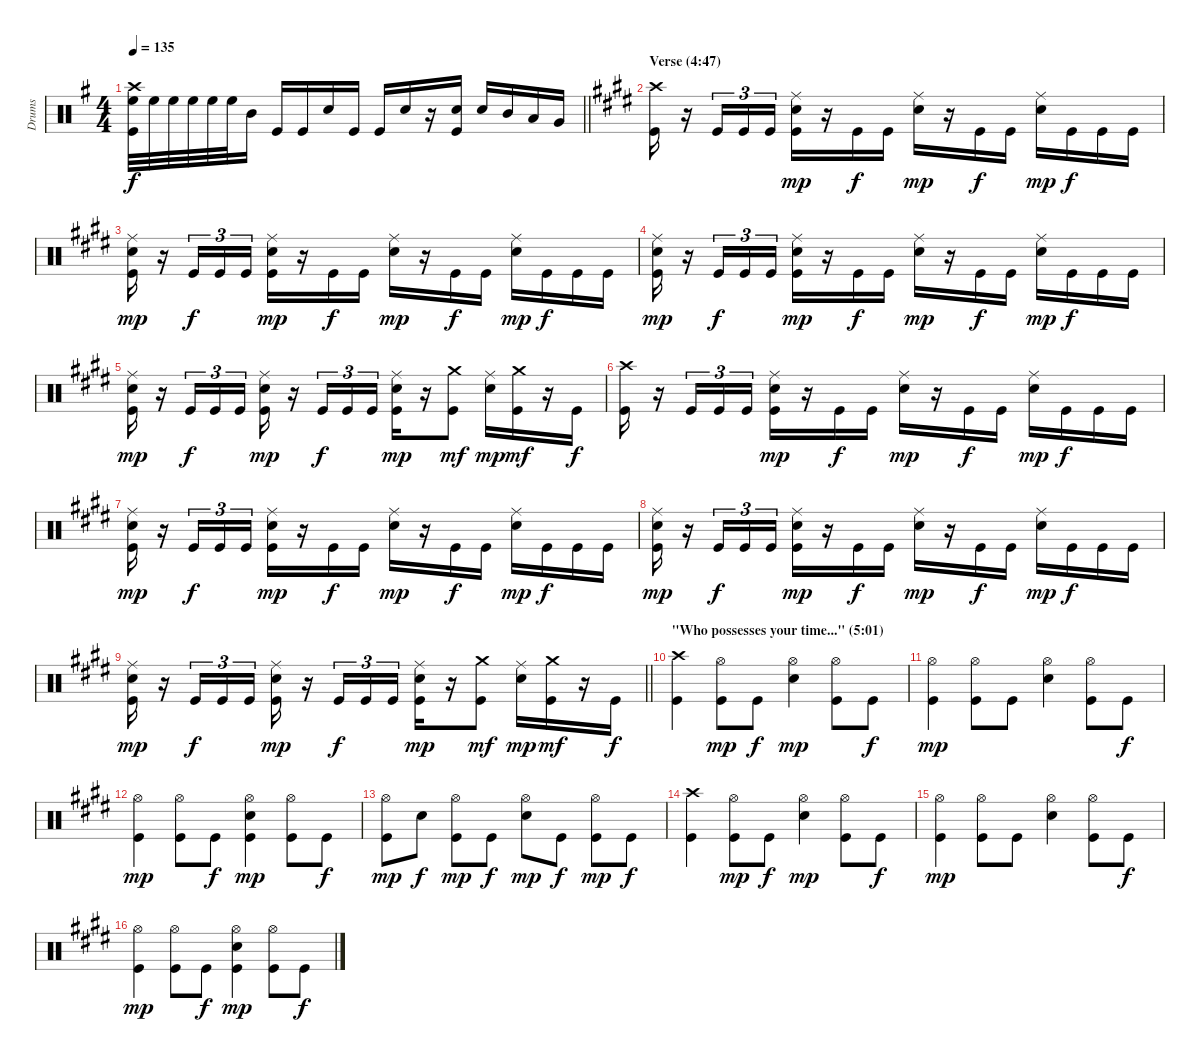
\track ("Drums" "Drums") {instrument percussion}
\staff {score}
\articulation defaults
\ts (4 4)
\tempo 135
\clef neutral
\barLineRight lightlight
\ks eminor
("Crash high (hit)" "High Floor Tom (hit)" "Kick (hit)").32{dy f} "High Floor Tom (hit)".32 "High Floor Tom (hit)".32 "High Floor Tom (hit)".32 "High Floor Tom (hit)".32 "High Floor Tom (hit)".32 "Mid Tom (hit)".16 "Kick (hit)".16 "Kick (hit)".16 "Snare (hit) 2".16 "Kick (hit)".16 "Kick (hit)".16 "Snare (hit) 2".16 r.16 ("Snare (hit) 2" "Kick (hit)").16 "Snare (hit) 2".16 "Mid Tom (hit)".16 "Low Tom (hit)".16 "Very Low Tom (hit)".16 |
\section ("" "Verse (4:47)")
\ks c#minor
("Crash high (hit)" "Kick (hit)").16 r.16 "Kick (hit)".16{tu (3 2)} "Kick (hit)".16{tu (3 2)} "Kick (hit)".16{tu (3 2)} ("Ride (middle)" "Snare (hit) 2" "Kick (hit)").16{dy mp} r.16 "Kick (hit)".16{dy f} "Kick (hit)".16 ("Ride (middle)" "Snare (hit) 2").16{dy mp} r.16 "Kick (hit)".16{dy f} "Kick (hit)".16 ("Ride (middle)" "Snare (hit) 2").16{dy mp} "Kick (hit)".16{dy f} "Kick (hit)".16 "Kick (hit)".16 |
("Ride (middle)" "Snare (hit) 2" "Kick (hit)").16{dy mp} r.16 "Kick (hit)".16{tu (3 2) dy f} "Kick (hit)".16{tu (3 2)} "Kick (hit)".16{tu (3 2)} ("Ride (middle)" "Snare (hit) 2" "Kick (hit)").16{dy mp} r.16 "Kick (hit)".16{dy f} "Kick (hit)".16 ("Ride (middle)" "Snare (hit) 2").16{dy mp} r.16 "Kick (hit)".16{dy f} "Kick (hit)".16 ("Ride (middle)" "Snare (hit) 2").16{dy mp} "Kick (hit)".16{dy f} "Kick (hit)".16 "Kick (hit)".16 |
("Ride (middle)" "Snare (hit) 2" "Kick (hit)").16{dy mp} r.16 "Kick (hit)".16{tu (3 2) dy f} "Kick (hit)".16{tu (3 2)} "Kick (hit)".16{tu (3 2)} ("Ride (middle)" "Snare (hit) 2" "Kick (hit)").16{dy mp} r.16 "Kick (hit)".16{dy f} "Kick (hit)".16 ("Ride (middle)" "Snare (hit) 2").16{dy mp} r.16 "Kick (hit)".16{dy f} "Kick (hit)".16 ("Ride (middle)" "Snare (hit) 2").16{dy mp} "Kick (hit)".16{dy f} "Kick (hit)".16 "Kick (hit)".16 |
("Ride (middle)" "Snare (hit) 2" "Kick (hit)").16{dy mp} r.16 "Kick (hit)".16{tu (3 2) dy f} "Kick (hit)".16{tu (3 2)} "Kick (hit)".16{tu (3 2)} ("Ride (middle)" "Snare (hit) 2" "Kick (hit)").16{dy mp} r.16 "Kick (hit)".16{tu (3 2) dy f} "Kick (hit)".16{tu (3 2)} "Kick (hit)".16{tu (3 2)} ("Ride (middle)" "Snare (hit) 2" "Kick (hit)").16{dy mp} r.16 ("Crash medium (hit)" "Kick (hit)").8{dy mf} ("Ride (middle)" "Snare (hit) 2").16{dy mp} ("Crash medium (hit)" "Kick (hit)").16{dy mf} r.16 "Kick (hit)".16{dy f} |
("Crash high (hit)" "Kick (hit)").16 r.16 "Kick (hit)".16{tu (3 2)} "Kick (hit)".16{tu (3 2)} "Kick (hit)".16{tu (3 2)} ("Ride (middle)" "Snare (hit) 2" "Kick (hit)").16{dy mp} r.16 "Kick (hit)".16{dy f} "Kick (hit)".16 ("Ride (middle)" "Snare (hit) 2").16{dy mp} r.16 "Kick (hit)".16{dy f} "Kick (hit)".16 ("Ride (middle)" "Snare (hit) 2").16{dy mp} "Kick (hit)".16{dy f} "Kick (hit)".16 "Kick (hit)".16 |
("Ride (middle)" "Snare (hit) 2" "Kick (hit)").16{dy mp} r.16 "Kick (hit)".16{tu (3 2) dy f} "Kick (hit)".16{tu (3 2)} "Kick (hit)".16{tu (3 2)} ("Ride (middle)" "Snare (hit) 2" "Kick (hit)").16{dy mp} r.16 "Kick (hit)".16{dy f} "Kick (hit)".16 ("Ride (middle)" "Snare (hit) 2").16{dy mp} r.16 "Kick (hit)".16{dy f} "Kick (hit)".16 ("Ride (middle)" "Snare (hit) 2").16{dy mp} "Kick (hit)".16{dy f} "Kick (hit)".16 "Kick (hit)".16 |
("Ride (middle)" "Snare (hit) 2" "Kick (hit)").16{dy mp} r.16 "Kick (hit)".16{tu (3 2) dy f} "Kick (hit)".16{tu (3 2)} "Kick (hit)".16{tu (3 2)} ("Ride (middle)" "Snare (hit) 2" "Kick (hit)").16{dy mp} r.16 "Kick (hit)".16{dy f} "Kick (hit)".16 ("Ride (middle)" "Snare (hit) 2").16{dy mp} r.16 "Kick (hit)".16{dy f} "Kick (hit)".16 ("Ride (middle)" "Snare (hit) 2").16{dy mp} "Kick (hit)".16{dy f} "Kick (hit)".16 "Kick (hit)".16 |
\barLineRight lightlight
("Ride (middle)" "Snare (hit) 2" "Kick (hit)").16{dy mp} r.16 "Kick (hit)".16{tu (3 2) dy f} "Kick (hit)".16{tu (3 2)} "Kick (hit)".16{tu (3 2)} ("Ride (middle)" "Snare (hit) 2" "Kick (hit)").16{dy mp} r.16 "Kick (hit)".16{tu (3 2) dy f} "Kick (hit)".16{tu (3 2)} "Kick (hit)".16{tu (3 2)} ("Ride (middle)" "Snare (hit) 2" "Kick (hit)").16{dy mp} r.16 ("Crash medium (hit)" "Kick (hit)").8{dy mf} ("Ride (middle)" "Snare (hit) 2").16{dy mp} ("Crash medium (hit)" "Kick (hit)").16{dy mf} r.16 "Kick (hit)".16{dy f} |
\section ("" "\"Who possesses your time...\" (5:01)")
("Crash high (hit)" "Kick (hit)").4 ("Hi-Hat (open)" "Kick (hit)").8{dy mp} "Kick (hit)".8{dy f} ("Hi-Hat (open)" "Snare (hit) 2").4{dy mp} ("Hi-Hat (open)" "Kick (hit)").8 "Kick (hit)".8{dy f} |
("Hi-Hat (open)" "Kick (hit)").4{dy mp} ("Hi-Hat (open)" "Kick (hit)").8 "Kick (hit)".8 ("Hi-Hat (open)" "Snare (hit) 2").4 ("Hi-Hat (open)" "Kick (hit)").8 "Kick (hit)".8{dy f} |
("Hi-Hat (open)" "Kick (hit)").4{dy mp} ("Hi-Hat (open)" "Kick (hit)").8 "Kick (hit)".8{dy f} ("Hi-Hat (open)" "Snare (hit) 2" "Kick (hit)").4{dy mp} ("Hi-Hat (open)" "Kick (hit)").8 "Kick (hit)".8{dy f} |
("Hi-Hat (open)" "Kick (hit)").8{dy mp} "Snare (hit) 2".8{dy f} ("Hi-Hat (open)" "Kick (hit)").8{dy mp} "Kick (hit)".8{dy f} ("Hi-Hat (open)" "Snare (hit) 2").8{dy mp} "Kick (hit)".8{dy f} ("Hi-Hat (open)" "Kick (hit)").8{dy mp} "Kick (hit)".8{dy f} |
("Crash high (hit)" "Kick (hit)").4 ("Hi-Hat (open)" "Kick (hit)").8{dy mp} "Kick (hit)".8{dy f} ("Hi-Hat (open)" "Snare (hit) 2").4{dy mp} ("Hi-Hat (open)" "Kick (hit)").8 "Kick (hit)".8{dy f} |
("Hi-Hat (open)" "Kick (hit)").4{dy mp} ("Hi-Hat (open)" "Kick (hit)").8 "Kick (hit)".8 ("Hi-Hat (open)" "Snare (hit) 2").4 ("Hi-Hat (open)" "Kick (hit)").8 "Kick (hit)".8{dy f} |
("Hi-Hat (open)" "Kick (hit)").4{dy mp} ("Hi-Hat (open)" "Kick (hit)").8 "Kick (hit)".8{dy f} ("Hi-Hat (open)" "Snare (hit) 2" "Kick (hit)").4{dy mp} ("Hi-Hat (open)" "Kick (hit)").8 "Kick (hit)".8{dy f}
